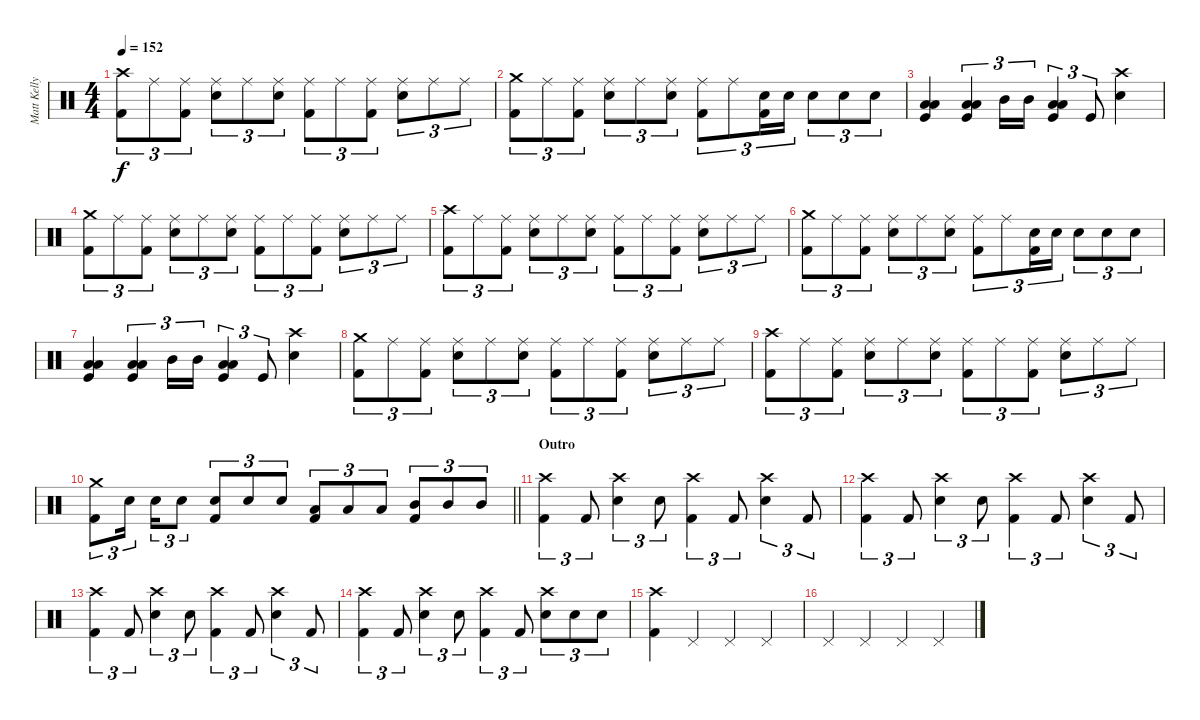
\track ("Matt Kelly (Drums)" "Matt Kelly") {instrument percussion}
\staff {score}
\articulation defaults
\ts (4 4)
\tempo 152
\clef neutral
\ks c
("Crash high (hit)" "Kick (hit) 2").8{tu (3 2) dy f} "Ride (middle)".8{tu (3 2)} ("Ride (middle)" "Kick (hit) 2").8{tu (3 2)} ("Ride (middle)" "Electric Snare (hit)").8{tu (3 2)} "Ride (middle)".8{tu (3 2)} ("Ride (middle)" "Electric Snare (hit)").8{tu (3 2)} ("Ride (middle)" "Kick (hit) 2").8{tu (3 2)} "Ride (middle)".8{tu (3 2)} ("Ride (middle)" "Kick (hit) 2").8{tu (3 2)} ("Ride (middle)" "Electric Snare (hit)").8{tu (3 2)} "Ride (middle)".8{tu (3 2)} "Ride (middle)".8{tu (3 2)} |
("Crash medium (hit)" "Kick (hit) 2").8{tu (3 2)} "Ride (middle)".8{tu (3 2)} ("Ride (middle)" "Kick (hit) 2").8{tu (3 2)} ("Ride (middle)" "Electric Snare (hit)").8{tu (3 2)} "Ride (middle)".8{tu (3 2)} ("Ride (middle)" "Electric Snare (hit)").8{tu (3 2)} ("Ride (middle)" "Kick (hit) 2").8{tu (3 2)} "Ride (middle)".8{tu (3 2)} ("Electric Snare (hit)" "Kick (hit) 2").16{tu (3 2)} "Electric Snare (hit)".16{tu (3 2)} "Electric Snare (hit)".8{tu (3 2)} "Electric Snare (hit)".8{tu (3 2)} "Electric Snare (hit)".8{tu (3 2)} |
("Low Tom (hit)" "Low Floor Tom (hit)" "Kick (hit)").4 ("Low Tom (hit)" "Low Floor Tom (hit)" "Kick (hit)").4{tu (3 2)} "Mid Tom (hit)".16{tu (3 2)} "Mid Tom (hit)".16{tu (3 2)} ("Low Tom (hit)" "Low Floor Tom (hit)" "Kick (hit)").4{tu (3 2)} "Kick (hit)".8{tu (3 2)} ("Crash high (hit)" "Snare (hit) 2").4 |
("Crash medium (hit)" "Kick (hit) 2").8{tu (3 2)} "Ride (middle)".8{tu (3 2)} ("Ride (middle)" "Kick (hit) 2").8{tu (3 2)} ("Ride (middle)" "Electric Snare (hit)").8{tu (3 2)} "Ride (middle)".8{tu (3 2)} ("Ride (middle)" "Electric Snare (hit)").8{tu (3 2)} ("Ride (middle)" "Kick (hit) 2").8{tu (3 2)} "Ride (middle)".8{tu (3 2)} ("Ride (middle)" "Kick (hit) 2").8{tu (3 2)} ("Ride (middle)" "Electric Snare (hit)").8{tu (3 2)} "Ride (middle)".8{tu (3 2)} "Ride (middle)".8{tu (3 2)} |
("Crash high (hit)" "Kick (hit) 2").8{tu (3 2)} "Ride (middle)".8{tu (3 2)} ("Ride (middle)" "Kick (hit) 2").8{tu (3 2)} ("Ride (middle)" "Electric Snare (hit)").8{tu (3 2)} "Ride (middle)".8{tu (3 2)} ("Ride (middle)" "Electric Snare (hit)").8{tu (3 2)} ("Ride (middle)" "Kick (hit) 2").8{tu (3 2)} "Ride (middle)".8{tu (3 2)} ("Ride (middle)" "Kick (hit) 2").8{tu (3 2)} ("Ride (middle)" "Electric Snare (hit)").8{tu (3 2)} "Ride (middle)".8{tu (3 2)} "Ride (middle)".8{tu (3 2)} |
("Crash medium (hit)" "Kick (hit) 2").8{tu (3 2)} "Ride (middle)".8{tu (3 2)} ("Ride (middle)" "Kick (hit) 2").8{tu (3 2)} ("Ride (middle)" "Electric Snare (hit)").8{tu (3 2)} "Ride (middle)".8{tu (3 2)} ("Ride (middle)" "Electric Snare (hit)").8{tu (3 2)} ("Ride (middle)" "Kick (hit) 2").8{tu (3 2)} "Ride (middle)".8{tu (3 2)} ("Electric Snare (hit)" "Kick (hit) 2").16{tu (3 2)} "Electric Snare (hit)".16{tu (3 2)} "Electric Snare (hit)".8{tu (3 2)} "Electric Snare (hit)".8{tu (3 2)} "Electric Snare (hit)".8{tu (3 2)} |
("Low Tom (hit)" "Low Floor Tom (hit)" "Kick (hit)").4 ("Low Tom (hit)" "Low Floor Tom (hit)" "Kick (hit)").4{tu (3 2)} "Mid Tom (hit)".16{tu (3 2)} "Mid Tom (hit)".16{tu (3 2)} ("Low Tom (hit)" "Low Floor Tom (hit)" "Kick (hit)").4{tu (3 2)} "Kick (hit)".8{tu (3 2)} ("Crash high (hit)" "Snare (hit) 2").4 |
("Crash medium (hit)" "Kick (hit) 2").8{tu (3 2)} "Ride (middle)".8{tu (3 2)} ("Ride (middle)" "Kick (hit) 2").8{tu (3 2)} ("Ride (middle)" "Electric Snare (hit)").8{tu (3 2)} "Ride (middle)".8{tu (3 2)} ("Ride (middle)" "Electric Snare (hit)").8{tu (3 2)} ("Ride (middle)" "Kick (hit) 2").8{tu (3 2)} "Ride (middle)".8{tu (3 2)} ("Ride (middle)" "Kick (hit) 2").8{tu (3 2)} ("Ride (middle)" "Electric Snare (hit)").8{tu (3 2)} "Ride (middle)".8{tu (3 2)} "Ride (middle)".8{tu (3 2)} |
("Crash high (hit)" "Kick (hit) 2").8{tu (3 2)} "Ride (middle)".8{tu (3 2)} ("Ride (middle)" "Kick (hit) 2").8{tu (3 2)} ("Ride (middle)" "Electric Snare (hit)").8{tu (3 2)} "Ride (middle)".8{tu (3 2)} ("Ride (middle)" "Electric Snare (hit)").8{tu (3 2)} ("Ride (middle)" "Kick (hit) 2").8{tu (3 2)} "Ride (middle)".8{tu (3 2)} ("Ride (middle)" "Kick (hit) 2").8{tu (3 2)} ("Ride (middle)" "Electric Snare (hit)").8{tu (3 2)} "Ride (middle)".8{tu (3 2)} "Ride (middle)".8{tu (3 2)} |
\barLineRight lightlight
("Crash medium (hit)" "Kick (hit) 2").8{tu (3 2)} "Electric Snare (hit)".16{tu (3 2) beam splitsecondary} "Electric Snare (hit)".16{tu (3 2)} "Electric Snare (hit)".8{tu (3 2)} ("Electric Snare (hit)" "Kick (hit) 2").8{tu (3 2)} "Electric Snare (hit)".8{tu (3 2)} "Electric Snare (hit)".8{tu (3 2)} ("Low Tom (hit)" "Kick (hit) 2").8{tu (3 2)} "Low Tom (hit)".8{tu (3 2)} "Low Tom (hit)".8{tu (3 2)} ("Mid Tom (hit)" "Kick (hit) 2").8{tu (3 2)} "Mid Tom (hit)".8{tu (3 2)} "Mid Tom (hit)".8{tu (3 2)} |
\section ("" "Outro")
("Crash high (hit)" "Kick (hit) 2").4{tu (3 2)} "Kick (hit) 2".8{tu (3 2)} ("Crash high (hit)" "Electric Snare (hit)").4{tu (3 2)} "Electric Snare (hit)".8{tu (3 2)} ("Crash high (hit)" "Kick (hit) 2").4{tu (3 2)} "Kick (hit) 2".8{tu (3 2)} ("Crash high (hit)" "Electric Snare (hit)").4{tu (3 2)} "Kick (hit) 2".8{tu (3 2)} |
("Crash high (hit)" "Kick (hit) 2").4{tu (3 2)} "Kick (hit) 2".8{tu (3 2)} ("Crash high (hit)" "Electric Snare (hit)").4{tu (3 2)} "Electric Snare (hit)".8{tu (3 2)} ("Crash high (hit)" "Kick (hit) 2").4{tu (3 2)} "Kick (hit) 2".8{tu (3 2)} ("Crash high (hit)" "Electric Snare (hit)").4{tu (3 2)} "Kick (hit) 2".8{tu (3 2)} |
("Crash high (hit)" "Kick (hit) 2").4{tu (3 2)} "Kick (hit) 2".8{tu (3 2)} ("Crash high (hit)" "Electric Snare (hit)").4{tu (3 2)} "Electric Snare (hit)".8{tu (3 2)} ("Crash high (hit)" "Kick (hit) 2").4{tu (3 2)} "Kick (hit) 2".8{tu (3 2)} ("Crash high (hit)" "Electric Snare (hit)").4{tu (3 2)} "Kick (hit) 2".8{tu (3 2)} |
("Crash high (hit)" "Kick (hit) 2").4{tu (3 2)} "Kick (hit) 2".8{tu (3 2)} ("Crash high (hit)" "Electric Snare (hit)").4{tu (3 2)} "Electric Snare (hit)".8{tu (3 2)} ("Crash high (hit)" "Kick (hit) 2").4{tu (3 2)} "Kick (hit) 2".8{tu (3 2)} ("Crash high (hit)" "Electric Snare (hit)").8{tu (3 2)} "Electric Snare (hit)".8{tu (3 2)} "Electric Snare (hit)".8{tu (3 2)} |
("Crash high (hit)" "Kick (hit) 2").4 "Pedal Hi-Hat (hit)".4 "Pedal Hi-Hat (hit)".4 "Pedal Hi-Hat (hit)".4 |
"Pedal Hi-Hat (hit)".4 "Pedal Hi-Hat (hit)".4 "Pedal Hi-Hat (hit)".4 "Pedal Hi-Hat (hit)".4
